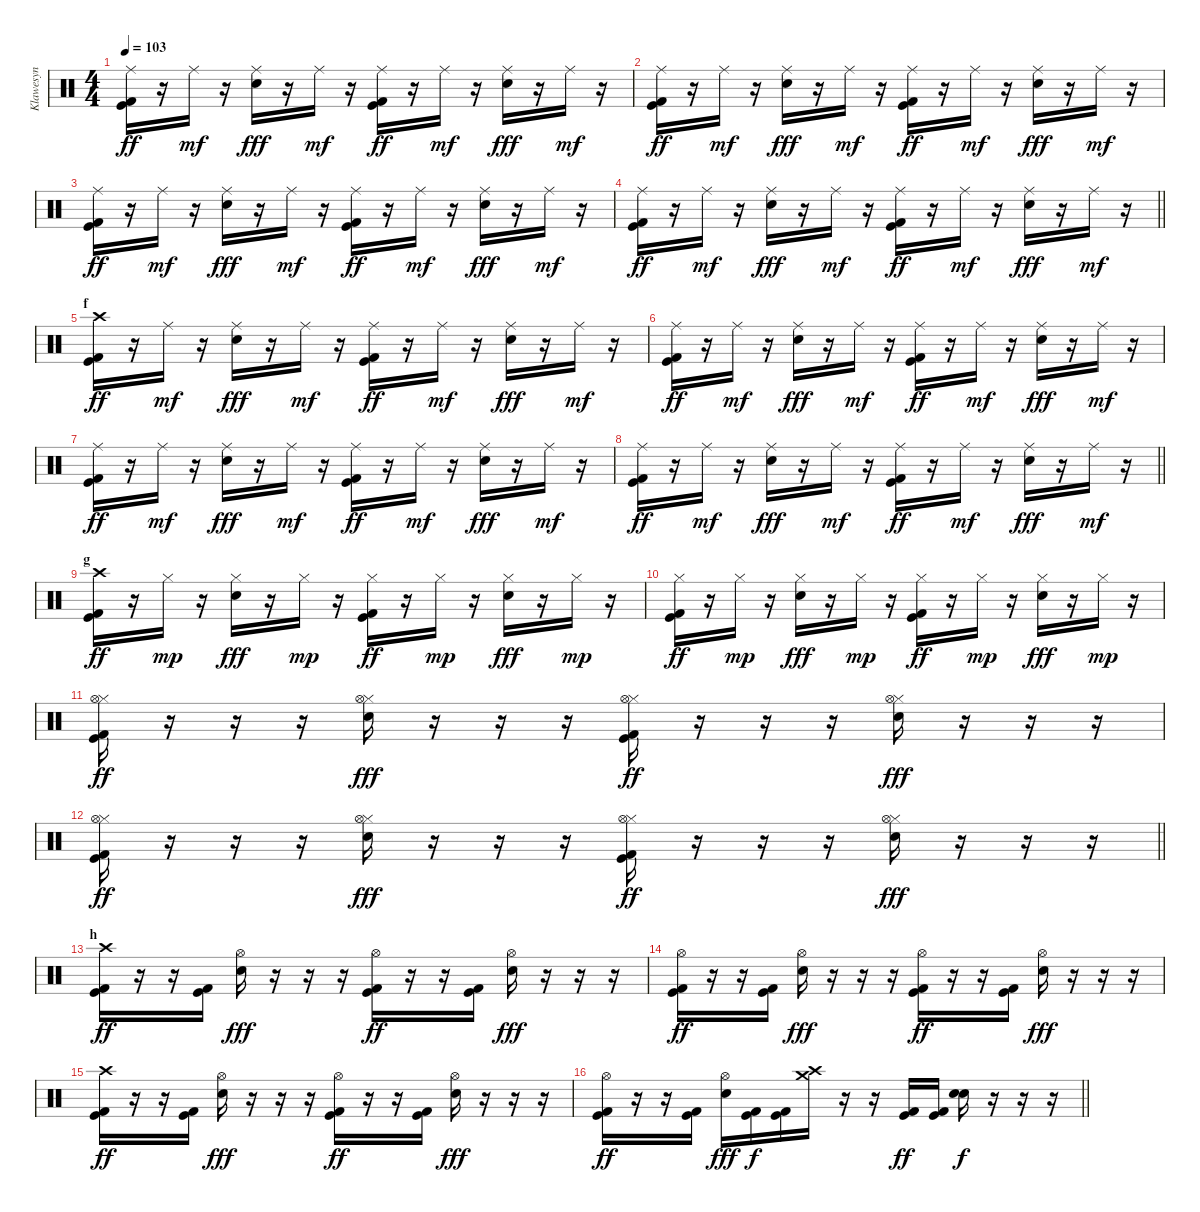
\track ("Klawesyn" "Klawesyn") {instrument percussion}
\staff {score}
\articulation defaults
\ts (4 4)
\tempo 103
\clef neutral
\ks c
("Ride (middle)" "Kick (hit)" "Kick (hit) 2").16{dy ff} r.16 "Ride (middle)".16{dy mf} r.16 ("Ride (middle)" "Electric Snare (hit)").16{dy fff} r.16 "Ride (middle)".16{dy mf} r.16 ("Ride (middle)" "Kick (hit)" "Kick (hit) 2").16{dy ff} r.16 "Ride (middle)".16{dy mf} r.16 ("Ride (middle)" "Electric Snare (hit)").16{dy fff} r.16 "Ride (middle)".16{dy mf} r.16 |
("Ride (middle)" "Kick (hit)" "Kick (hit) 2").16{dy ff} r.16 "Ride (middle)".16{dy mf} r.16 ("Ride (middle)" "Electric Snare (hit)").16{dy fff} r.16 "Ride (middle)".16{dy mf} r.16 ("Ride (middle)" "Kick (hit)" "Kick (hit) 2").16{dy ff} r.16 "Ride (middle)".16{dy mf} r.16 ("Ride (middle)" "Electric Snare (hit)").16{dy fff} r.16 "Ride (middle)".16{dy mf} r.16 |
("Ride (middle)" "Kick (hit)" "Kick (hit) 2").16{dy ff} r.16 "Ride (middle)".16{dy mf} r.16 ("Ride (middle)" "Electric Snare (hit)").16{dy fff} r.16 "Ride (middle)".16{dy mf} r.16 ("Ride (middle)" "Kick (hit)" "Kick (hit) 2").16{dy ff} r.16 "Ride (middle)".16{dy mf} r.16 ("Ride (middle)" "Electric Snare (hit)").16{dy fff} r.16 "Ride (middle)".16{dy mf} r.16 |
\barLineRight lightlight
("Ride (middle)" "Kick (hit)" "Kick (hit) 2").16{dy ff} r.16 "Ride (middle)".16{dy mf} r.16 ("Ride (middle)" "Electric Snare (hit)").16{dy fff} r.16 "Ride (middle)".16{dy mf} r.16 ("Ride (middle)" "Kick (hit)" "Kick (hit) 2").16{dy ff} r.16 "Ride (middle)".16{dy mf} r.16 ("Ride (middle)" "Electric Snare (hit)").16{dy fff} r.16 "Ride (middle)".16{dy mf} r.16 |
\section ("" "f")
("Crash high (hit)" "Kick (hit)" "Kick (hit) 2").16{dy ff} r.16 "Ride (middle)".16{dy mf} r.16 ("Ride (middle)" "Electric Snare (hit)").16{dy fff} r.16 "Ride (middle)".16{dy mf} r.16 ("Ride (middle)" "Kick (hit)" "Kick (hit) 2").16{dy ff} r.16 "Ride (middle)".16{dy mf} r.16 ("Ride (middle)" "Electric Snare (hit)").16{dy fff} r.16 "Ride (middle)".16{dy mf} r.16 |
("Ride (middle)" "Kick (hit)" "Kick (hit) 2").16{dy ff} r.16 "Ride (middle)".16{dy mf} r.16 ("Ride (middle)" "Electric Snare (hit)").16{dy fff} r.16 "Ride (middle)".16{dy mf} r.16 ("Ride (middle)" "Kick (hit)" "Kick (hit) 2").16{dy ff} r.16 "Ride (middle)".16{dy mf} r.16 ("Ride (middle)" "Electric Snare (hit)").16{dy fff} r.16 "Ride (middle)".16{dy mf} r.16 |
("Ride (middle)" "Kick (hit)" "Kick (hit) 2").16{dy ff} r.16 "Ride (middle)".16{dy mf} r.16 ("Ride (middle)" "Electric Snare (hit)").16{dy fff} r.16 "Ride (middle)".16{dy mf} r.16 ("Ride (middle)" "Kick (hit)" "Kick (hit) 2").16{dy ff} r.16 "Ride (middle)".16{dy mf} r.16 ("Ride (middle)" "Electric Snare (hit)").16{dy fff} r.16 "Ride (middle)".16{dy mf} r.16 |
\barLineRight lightlight
("Ride (middle)" "Kick (hit)" "Kick (hit) 2").16{dy ff} r.16 "Ride (middle)".16{dy mf} r.16 ("Ride (middle)" "Electric Snare (hit)").16{dy fff} r.16 "Ride (middle)".16{dy mf} r.16 ("Ride (middle)" "Kick (hit)" "Kick (hit) 2").16{dy ff} r.16 "Ride (middle)".16{dy mf} r.16 ("Ride (middle)" "Electric Snare (hit)").16{dy fff} r.16 "Ride (middle)".16{dy mf} r.16 |
\section ("" "g")
("Crash high (hit)" "Kick (hit)" "Kick (hit) 2").16{dy ff} r.16 "Hi-Hat (closed)".16{dy mp} r.16 ("Hi-Hat (closed)" "Electric Snare (hit)").16{dy fff} r.16 "Hi-Hat (closed)".16{dy mp} r.16 ("Hi-Hat (closed)" "Kick (hit)" "Kick (hit) 2").16{dy ff} r.16 "Hi-Hat (closed)".16{dy mp} r.16 ("Hi-Hat (closed)" "Electric Snare (hit)").16{dy fff} r.16 "Hi-Hat (closed)".16{dy mp} r.16 |
("Hi-Hat (closed)" "Kick (hit)" "Kick (hit) 2").16{dy ff} r.16 "Hi-Hat (closed)".16{dy mp} r.16 ("Hi-Hat (closed)" "Electric Snare (hit)").16{dy fff} r.16 "Hi-Hat (closed)".16{dy mp} r.16 ("Hi-Hat (closed)" "Kick (hit)" "Kick (hit) 2").16{dy ff} r.16 "Hi-Hat (closed)".16{dy mp} r.16 ("Hi-Hat (closed)" "Electric Snare (hit)").16{dy fff} r.16 "Hi-Hat (closed)".16{dy mp} r.16 |
("Hi-Hat (closed)" "Hi-Hat (open)" "Kick (hit)" "Kick (hit) 2").16{dy ff} r.16 r.16 r.16 ("Hi-Hat (closed)" "Hi-Hat (open)" "Electric Snare (hit)").16{dy fff} r.16 r.16 r.16 ("Hi-Hat (closed)" "Hi-Hat (open)" "Kick (hit)" "Kick (hit) 2").16{dy ff} r.16 r.16 r.16 ("Hi-Hat (closed)" "Hi-Hat (open)" "Electric Snare (hit)").16{dy fff} r.16 r.16 r.16 |
\barLineRight lightlight
("Hi-Hat (closed)" "Hi-Hat (open)" "Kick (hit)" "Kick (hit) 2").16{dy ff} r.16 r.16 r.16 ("Hi-Hat (closed)" "Hi-Hat (open)" "Electric Snare (hit)").16{dy fff} r.16 r.16 r.16 ("Hi-Hat (closed)" "Hi-Hat (open)" "Kick (hit)" "Kick (hit) 2").16{dy ff} r.16 r.16 r.16 ("Hi-Hat (closed)" "Hi-Hat (open)" "Electric Snare (hit)").16{dy fff} r.16 r.16 r.16 |
\section ("" "h")
("Crash high (hit)" "Kick (hit)" "Kick (hit) 2").16{dy ff} r.16 r.16 ("Kick (hit)" "Kick (hit) 2").16 ("Hi-Hat (open)" "Electric Snare (hit)").16{dy fff} r.16 r.16 r.16 ("Hi-Hat (open)" "Kick (hit)" "Kick (hit) 2").16{dy ff} r.16 r.16 ("Kick (hit)" "Kick (hit) 2").16 ("Hi-Hat (open)" "Electric Snare (hit)").16{dy fff} r.16 r.16 r.16 |
("Hi-Hat (open)" "Kick (hit)" "Kick (hit) 2").16{dy ff} r.16 r.16 ("Kick (hit)" "Kick (hit) 2").16 ("Hi-Hat (open)" "Electric Snare (hit)").16{dy fff} r.16 r.16 r.16 ("Hi-Hat (open)" "Kick (hit)" "Kick (hit) 2").16{dy ff} r.16 r.16 ("Kick (hit)" "Kick (hit) 2").16 ("Hi-Hat (open)" "Electric Snare (hit)").16{dy fff} r.16 r.16 r.16 |
("Crash high (hit)" "Kick (hit)" "Kick (hit) 2").16{dy ff} r.16 r.16 ("Kick (hit)" "Kick (hit) 2").16 ("Hi-Hat (open)" "Electric Snare (hit)").16{dy fff} r.16 r.16 r.16 ("Hi-Hat (open)" "Kick (hit)" "Kick (hit) 2").16{dy ff} r.16 r.16 ("Kick (hit)" "Kick (hit) 2").16 ("Hi-Hat (open)" "Electric Snare (hit)").16{dy fff} r.16 r.16 r.16 |
\barLineRight lightlight
("Hi-Hat (open)" "Kick (hit)" "Kick (hit) 2").16{dy ff} r.16 r.16 ("Kick (hit)" "Kick (hit) 2").16 ("Hi-Hat (open)" "Electric Snare (hit)").16{dy fff} ("Kick (hit)" "Kick (hit) 2").16{dy f} ("Kick (hit)" "Kick (hit) 2").16 ("Crash high (hit)" "Crash medium (hit)").16 r.16 r.16 ("Kick (hit)" "Kick (hit) 2").16{dy ff} ("Kick (hit)" "Kick (hit) 2").16 ("Electric Snare (hit)" "Snare (hit) 2").16{dy f} r.16 r.16 r.16
